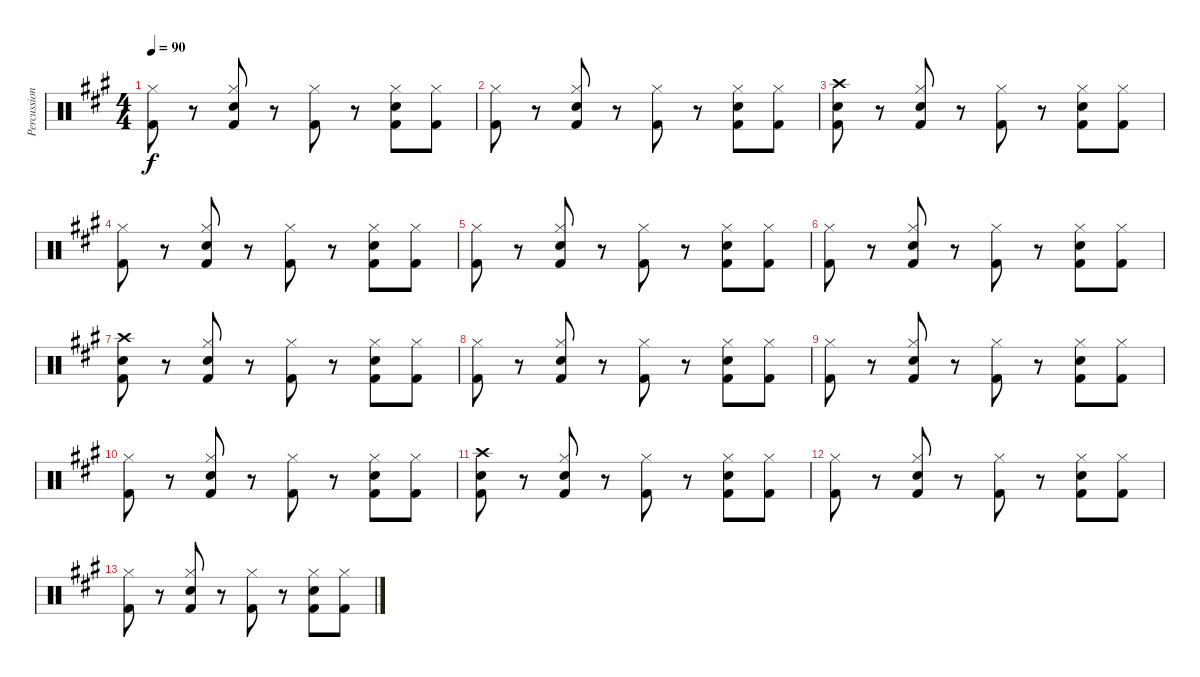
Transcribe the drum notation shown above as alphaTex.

\track ("Percussion" "Percussion") {instrument percussion}
\staff {score}
\articulation defaults
\ts (4 4)
\tempo 90
\clef neutral
\ks a
("Kick (hit) 2" "Hi-Hat (closed)").8{dy f} r.8 ("Kick (hit) 2" "Snare (hit) 2" "Hi-Hat (closed)").8 r.8 ("Kick (hit) 2" "Hi-Hat (closed)").8 r.8 ("Kick (hit) 2" "Snare (hit) 2" "Hi-Hat (closed)").8 ("Kick (hit) 2" "Hi-Hat (closed)").8 |
("Kick (hit) 2" "Hi-Hat (closed)").8 r.8 ("Kick (hit) 2" "Snare (hit) 2" "Hi-Hat (closed)").8 r.8 ("Kick (hit) 2" "Hi-Hat (closed)").8 r.8 ("Kick (hit) 2" "Snare (hit) 2" "Hi-Hat (closed)").8 ("Kick (hit) 2" "Hi-Hat (closed)").8 |
("Kick (hit) 2" "Snare (hit) 2" "Crash high (hit)").8 r.8 ("Kick (hit) 2" "Snare (hit) 2" "Hi-Hat (closed)").8 r.8 ("Kick (hit) 2" "Hi-Hat (closed)").8 r.8 ("Kick (hit) 2" "Snare (hit) 2" "Hi-Hat (closed)").8 ("Kick (hit) 2" "Hi-Hat (closed)").8 |
("Kick (hit) 2" "Hi-Hat (closed)").8 r.8 ("Kick (hit) 2" "Snare (hit) 2" "Hi-Hat (closed)").8 r.8 ("Kick (hit) 2" "Hi-Hat (closed)").8 r.8 ("Kick (hit) 2" "Snare (hit) 2" "Hi-Hat (closed)").8 ("Kick (hit) 2" "Hi-Hat (closed)").8 |
("Kick (hit) 2" "Hi-Hat (closed)").8 r.8 ("Kick (hit) 2" "Snare (hit) 2" "Hi-Hat (closed)").8 r.8 ("Kick (hit) 2" "Hi-Hat (closed)").8 r.8 ("Kick (hit) 2" "Snare (hit) 2" "Hi-Hat (closed)").8 ("Kick (hit) 2" "Hi-Hat (closed)").8 |
("Kick (hit) 2" "Hi-Hat (closed)").8 r.8 ("Kick (hit) 2" "Snare (hit) 2" "Hi-Hat (closed)").8 r.8 ("Kick (hit) 2" "Hi-Hat (closed)").8 r.8 ("Kick (hit) 2" "Snare (hit) 2" "Hi-Hat (closed)").8 ("Kick (hit) 2" "Hi-Hat (closed)").8 |
("Kick (hit) 2" "Snare (hit) 2" "Crash high (hit)").8 r.8 ("Kick (hit) 2" "Snare (hit) 2" "Hi-Hat (closed)").8 r.8 ("Kick (hit) 2" "Hi-Hat (closed)").8 r.8 ("Kick (hit) 2" "Snare (hit) 2" "Hi-Hat (closed)").8 ("Kick (hit) 2" "Hi-Hat (closed)").8 |
("Kick (hit) 2" "Hi-Hat (closed)").8 r.8 ("Kick (hit) 2" "Snare (hit) 2" "Hi-Hat (closed)").8 r.8 ("Kick (hit) 2" "Hi-Hat (closed)").8 r.8 ("Kick (hit) 2" "Snare (hit) 2" "Hi-Hat (closed)").8 ("Kick (hit) 2" "Hi-Hat (closed)").8 |
("Kick (hit) 2" "Hi-Hat (closed)").8 r.8 ("Kick (hit) 2" "Snare (hit) 2" "Hi-Hat (closed)").8 r.8 ("Kick (hit) 2" "Hi-Hat (closed)").8 r.8 ("Kick (hit) 2" "Snare (hit) 2" "Hi-Hat (closed)").8 ("Kick (hit) 2" "Hi-Hat (closed)").8 |
("Kick (hit) 2" "Hi-Hat (closed)").8 r.8 ("Kick (hit) 2" "Snare (hit) 2" "Hi-Hat (closed)").8 r.8 ("Kick (hit) 2" "Hi-Hat (closed)").8 r.8 ("Kick (hit) 2" "Snare (hit) 2" "Hi-Hat (closed)").8 ("Kick (hit) 2" "Hi-Hat (closed)").8 |
("Kick (hit) 2" "Snare (hit) 2" "Crash high (hit)").8 r.8 ("Kick (hit) 2" "Snare (hit) 2" "Hi-Hat (closed)").8 r.8 ("Kick (hit) 2" "Hi-Hat (closed)").8 r.8 ("Kick (hit) 2" "Snare (hit) 2" "Hi-Hat (closed)").8 ("Kick (hit) 2" "Hi-Hat (closed)").8 |
("Kick (hit) 2" "Hi-Hat (closed)").8 r.8 ("Kick (hit) 2" "Snare (hit) 2" "Hi-Hat (closed)").8 r.8 ("Kick (hit) 2" "Hi-Hat (closed)").8 r.8 ("Kick (hit) 2" "Snare (hit) 2" "Hi-Hat (closed)").8 ("Kick (hit) 2" "Hi-Hat (closed)").8 |
("Kick (hit) 2" "Hi-Hat (closed)").8 r.8 ("Kick (hit) 2" "Snare (hit) 2" "Hi-Hat (closed)").8 r.8 ("Kick (hit) 2" "Hi-Hat (closed)").8 r.8 ("Kick (hit) 2" "Snare (hit) 2" "Hi-Hat (closed)").8 ("Kick (hit) 2" "Hi-Hat (closed)").8
